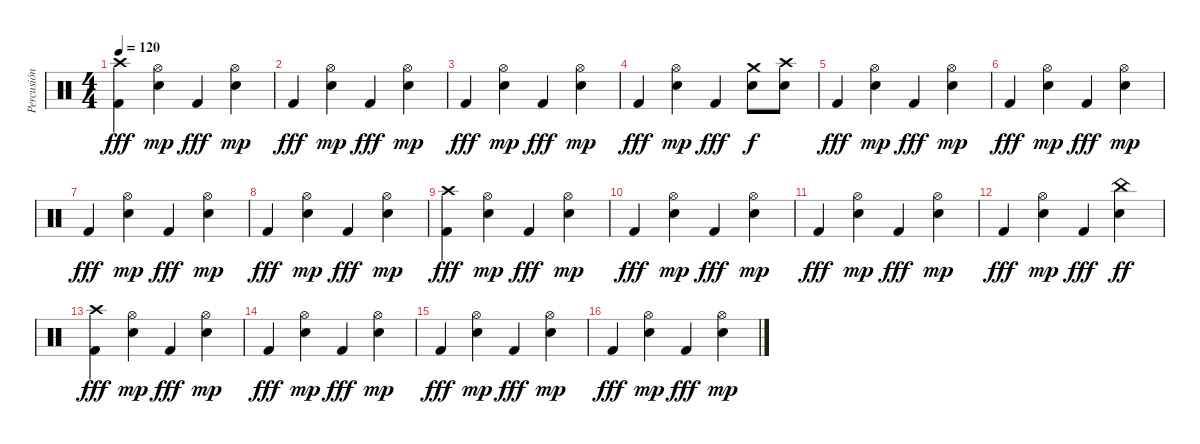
\track ("Percusión" "Percusión") {instrument percussion}
\staff {score}
\articulation defaults
\ts (4 4)
\tempo 120
\clef neutral
\ks c
("Crash high (hit)" "Kick (hit) 2").4{dy fff} ("Hi-Hat (open)" "Snare (hit) 2").4{dy mp} "Kick (hit) 2".4{dy fff} ("Hi-Hat (open)" "Snare (hit) 2").4{dy mp} |
"Kick (hit) 2".4{dy fff} ("Hi-Hat (open)" "Snare (hit) 2").4{dy mp} "Kick (hit) 2".4{dy fff} ("Hi-Hat (open)" "Snare (hit) 2").4{dy mp} |
"Kick (hit) 2".4{dy fff} ("Hi-Hat (open)" "Snare (hit) 2").4{dy mp} "Kick (hit) 2".4{dy fff} ("Hi-Hat (open)" "Snare (hit) 2").4{dy mp} |
"Kick (hit) 2".4{dy fff} ("Hi-Hat (open)" "Snare (hit) 2").4{dy mp} "Kick (hit) 2".4{dy fff} ("Crash medium (hit)" "Snare (hit) 2").8{dy f} ("Crash high (hit)" "Snare (hit) 2").8 |
"Kick (hit) 2".4{dy fff} ("Hi-Hat (open)" "Snare (hit) 2").4{dy mp} "Kick (hit) 2".4{dy fff} ("Hi-Hat (open)" "Snare (hit) 2").4{dy mp} |
"Kick (hit) 2".4{dy fff} ("Hi-Hat (open)" "Snare (hit) 2").4{dy mp} "Kick (hit) 2".4{dy fff} ("Hi-Hat (open)" "Snare (hit) 2").4{dy mp} |
"Kick (hit) 2".4{dy fff} ("Hi-Hat (open)" "Snare (hit) 2").4{dy mp} "Kick (hit) 2".4{dy fff} ("Hi-Hat (open)" "Snare (hit) 2").4{dy mp} |
"Kick (hit) 2".4{dy fff} ("Hi-Hat (open)" "Snare (hit) 2").4{dy mp} "Kick (hit) 2".4{dy fff} ("Hi-Hat (open)" "Snare (hit) 2").4{dy mp} |
("Crash high (hit)" "Kick (hit) 2").4{dy fff} ("Hi-Hat (open)" "Snare (hit) 2").4{dy mp} "Kick (hit) 2".4{dy fff} ("Hi-Hat (open)" "Snare (hit) 2").4{dy mp} |
"Kick (hit) 2".4{dy fff} ("Hi-Hat (open)" "Snare (hit) 2").4{dy mp} "Kick (hit) 2".4{dy fff} ("Hi-Hat (open)" "Snare (hit) 2").4{dy mp} |
"Kick (hit) 2".4{dy fff} ("Hi-Hat (open)" "Snare (hit) 2").4{dy mp} "Kick (hit) 2".4{dy fff} ("Hi-Hat (open)" "Snare (hit) 2").4{dy mp} |
"Kick (hit) 2".4{dy fff} ("Hi-Hat (open)" "Snare (hit) 2").4{dy mp} "Kick (hit) 2".4{dy fff} ("China (hit)" "Snare (hit) 2").4{dy ff} |
("Crash high (hit)" "Kick (hit) 2").4{dy fff} ("Hi-Hat (open)" "Snare (hit) 2").4{dy mp} "Kick (hit) 2".4{dy fff} ("Hi-Hat (open)" "Snare (hit) 2").4{dy mp} |
"Kick (hit) 2".4{dy fff} ("Hi-Hat (open)" "Snare (hit) 2").4{dy mp} "Kick (hit) 2".4{dy fff} ("Hi-Hat (open)" "Snare (hit) 2").4{dy mp} |
"Kick (hit) 2".4{dy fff} ("Hi-Hat (open)" "Snare (hit) 2").4{dy mp} "Kick (hit) 2".4{dy fff} ("Hi-Hat (open)" "Snare (hit) 2").4{dy mp} |
"Kick (hit) 2".4{dy fff} ("Hi-Hat (open)" "Snare (hit) 2").4{dy mp} "Kick (hit) 2".4{dy fff} ("Hi-Hat (open)" "Snare (hit) 2").4{dy mp}
